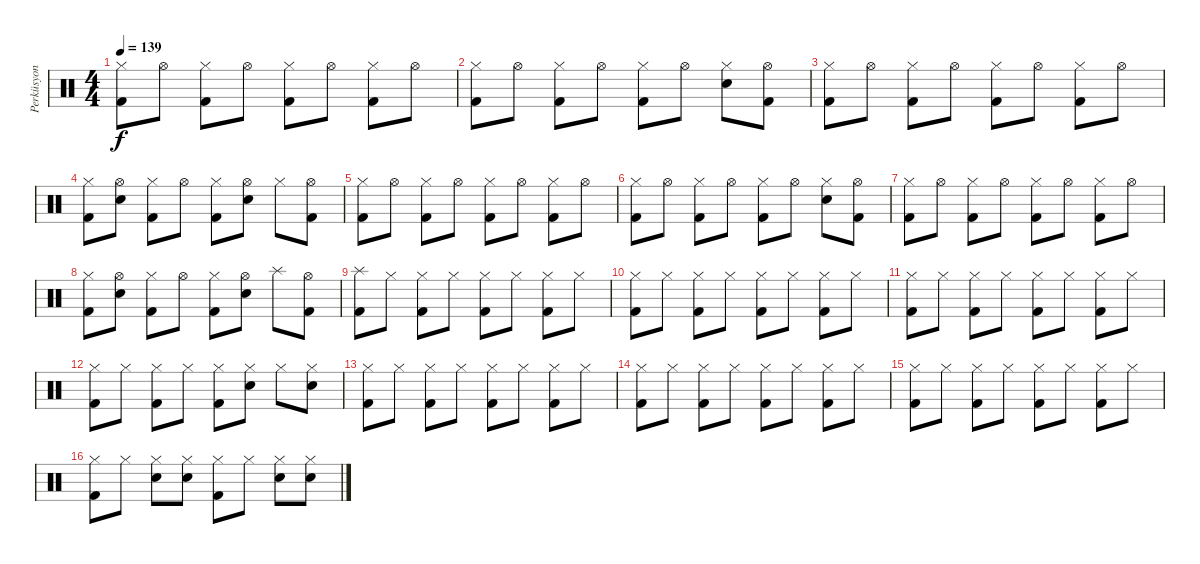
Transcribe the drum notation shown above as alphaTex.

\track ("Perküsyon" "Perküsyon") {instrument percussion}
\staff {score}
\articulation defaults
\ts (4 4)
\tempo 139
\clef neutral
\ks c
("Hi-Hat (closed)" "Kick (hit) 2").8{dy f} "Hi-Hat (open)".8 ("Hi-Hat (closed)" "Kick (hit) 2").8 "Hi-Hat (open)".8 ("Hi-Hat (closed)" "Kick (hit) 2").8 "Hi-Hat (open)".8 ("Hi-Hat (closed)" "Kick (hit) 2").8 "Hi-Hat (open)".8 |
("Hi-Hat (closed)" "Kick (hit) 2").8 "Hi-Hat (open)".8 ("Hi-Hat (closed)" "Kick (hit) 2").8 "Hi-Hat (open)".8 ("Hi-Hat (closed)" "Kick (hit) 2").8 "Hi-Hat (open)".8 ("Hi-Hat (closed)" "Snare (hit) 2").8 ("Hi-Hat (open)" "Kick (hit) 2").8 |
("Hi-Hat (closed)" "Kick (hit) 2").8 "Hi-Hat (open)".8 ("Hi-Hat (closed)" "Kick (hit) 2").8 "Hi-Hat (open)".8 ("Hi-Hat (closed)" "Kick (hit) 2").8 "Hi-Hat (open)".8 ("Hi-Hat (closed)" "Kick (hit) 2").8 "Hi-Hat (open)".8 |
("Hi-Hat (closed)" "Kick (hit) 2").8 ("Hi-Hat (open)" "Snare (hit) 2").8 ("Hi-Hat (closed)" "Kick (hit) 2").8 "Hi-Hat (open)".8 ("Hi-Hat (closed)" "Kick (hit) 2").8 ("Hi-Hat (open)" "Snare (hit) 2").8 "Hi-Hat (closed)".8 ("Hi-Hat (open)" "Kick (hit) 2").8 |
("Hi-Hat (closed)" "Kick (hit) 2").8 "Hi-Hat (open)".8 ("Hi-Hat (closed)" "Kick (hit) 2").8 "Hi-Hat (open)".8 ("Hi-Hat (closed)" "Kick (hit) 2").8 "Hi-Hat (open)".8 ("Hi-Hat (closed)" "Kick (hit) 2").8 "Hi-Hat (open)".8 |
("Hi-Hat (closed)" "Kick (hit) 2").8 "Hi-Hat (open)".8 ("Hi-Hat (closed)" "Kick (hit) 2").8 "Hi-Hat (open)".8 ("Hi-Hat (closed)" "Kick (hit) 2").8 "Hi-Hat (open)".8 ("Hi-Hat (closed)" "Snare (hit) 2").8 ("Hi-Hat (open)" "Kick (hit) 2").8 |
("Hi-Hat (closed)" "Kick (hit) 2").8 "Hi-Hat (open)".8 ("Hi-Hat (closed)" "Kick (hit) 2").8 "Hi-Hat (open)".8 ("Hi-Hat (closed)" "Kick (hit) 2").8 "Hi-Hat (open)".8 ("Hi-Hat (closed)" "Kick (hit) 2").8 "Hi-Hat (open)".8 |
("Hi-Hat (closed)" "Kick (hit) 2").8 ("Hi-Hat (open)" "Snare (hit) 2").8 ("Hi-Hat (closed)" "Kick (hit) 2").8 "Hi-Hat (open)".8 ("Hi-Hat (closed)" "Kick (hit) 2").8 ("Hi-Hat (open)" "Snare (hit) 2").8 "Splash (hit)".8 ("Hi-Hat (open)" "Kick (hit) 2").8 |
("Splash (hit)" "Kick (hit) 2").8 "Hi-Hat (closed)".8 ("Hi-Hat (closed)" "Kick (hit) 2").8 "Hi-Hat (closed)".8 ("Hi-Hat (closed)" "Kick (hit) 2").8 "Hi-Hat (closed)".8 ("Hi-Hat (closed)" "Kick (hit) 2").8 "Hi-Hat (closed)".8 |
("Hi-Hat (closed)" "Kick (hit) 2").8 "Hi-Hat (closed)".8 ("Hi-Hat (closed)" "Kick (hit) 2").8 "Hi-Hat (closed)".8 ("Hi-Hat (closed)" "Kick (hit) 2").8 "Hi-Hat (closed)".8 ("Hi-Hat (closed)" "Kick (hit) 2").8 "Hi-Hat (closed)".8 |
("Hi-Hat (closed)" "Kick (hit) 2").8 "Hi-Hat (closed)".8 ("Hi-Hat (closed)" "Kick (hit) 2").8 "Hi-Hat (closed)".8 ("Hi-Hat (closed)" "Kick (hit) 2").8 "Hi-Hat (closed)".8 ("Hi-Hat (closed)" "Kick (hit) 2").8 "Hi-Hat (closed)".8 |
("Hi-Hat (closed)" "Kick (hit) 2").8 "Hi-Hat (closed)".8 ("Hi-Hat (closed)" "Kick (hit) 2").8 "Hi-Hat (closed)".8 ("Hi-Hat (closed)" "Kick (hit) 2").8 ("Hi-Hat (closed)" "Snare (hit) 2").8 "Hi-Hat (closed)".8 ("Hi-Hat (closed)" "Snare (hit) 2").8 |
("Hi-Hat (closed)" "Kick (hit) 2").8 "Hi-Hat (closed)".8 ("Hi-Hat (closed)" "Kick (hit) 2").8 "Hi-Hat (closed)".8 ("Hi-Hat (closed)" "Kick (hit) 2").8 "Hi-Hat (closed)".8 ("Hi-Hat (closed)" "Kick (hit) 2").8 "Hi-Hat (closed)".8 |
("Hi-Hat (closed)" "Kick (hit) 2").8 "Hi-Hat (closed)".8 ("Hi-Hat (closed)" "Kick (hit) 2").8 "Hi-Hat (closed)".8 ("Hi-Hat (closed)" "Kick (hit) 2").8 "Hi-Hat (closed)".8 ("Hi-Hat (closed)" "Kick (hit) 2").8 "Hi-Hat (closed)".8 |
("Hi-Hat (closed)" "Kick (hit) 2").8 "Hi-Hat (closed)".8 ("Hi-Hat (closed)" "Kick (hit) 2").8 "Hi-Hat (closed)".8 ("Hi-Hat (closed)" "Kick (hit) 2").8 "Hi-Hat (closed)".8 ("Hi-Hat (closed)" "Kick (hit) 2").8 "Hi-Hat (closed)".8 |
("Hi-Hat (closed)" "Kick (hit) 2").8 "Hi-Hat (closed)".8 ("Hi-Hat (closed)" "Snare (hit) 2").8 ("Hi-Hat (closed)" "Snare (hit) 2").8 ("Hi-Hat (closed)" "Kick (hit) 2").8 "Hi-Hat (closed)".8 ("Hi-Hat (closed)" "Snare (hit) 2").8 ("Hi-Hat (closed)" "Snare (hit) 2").8
